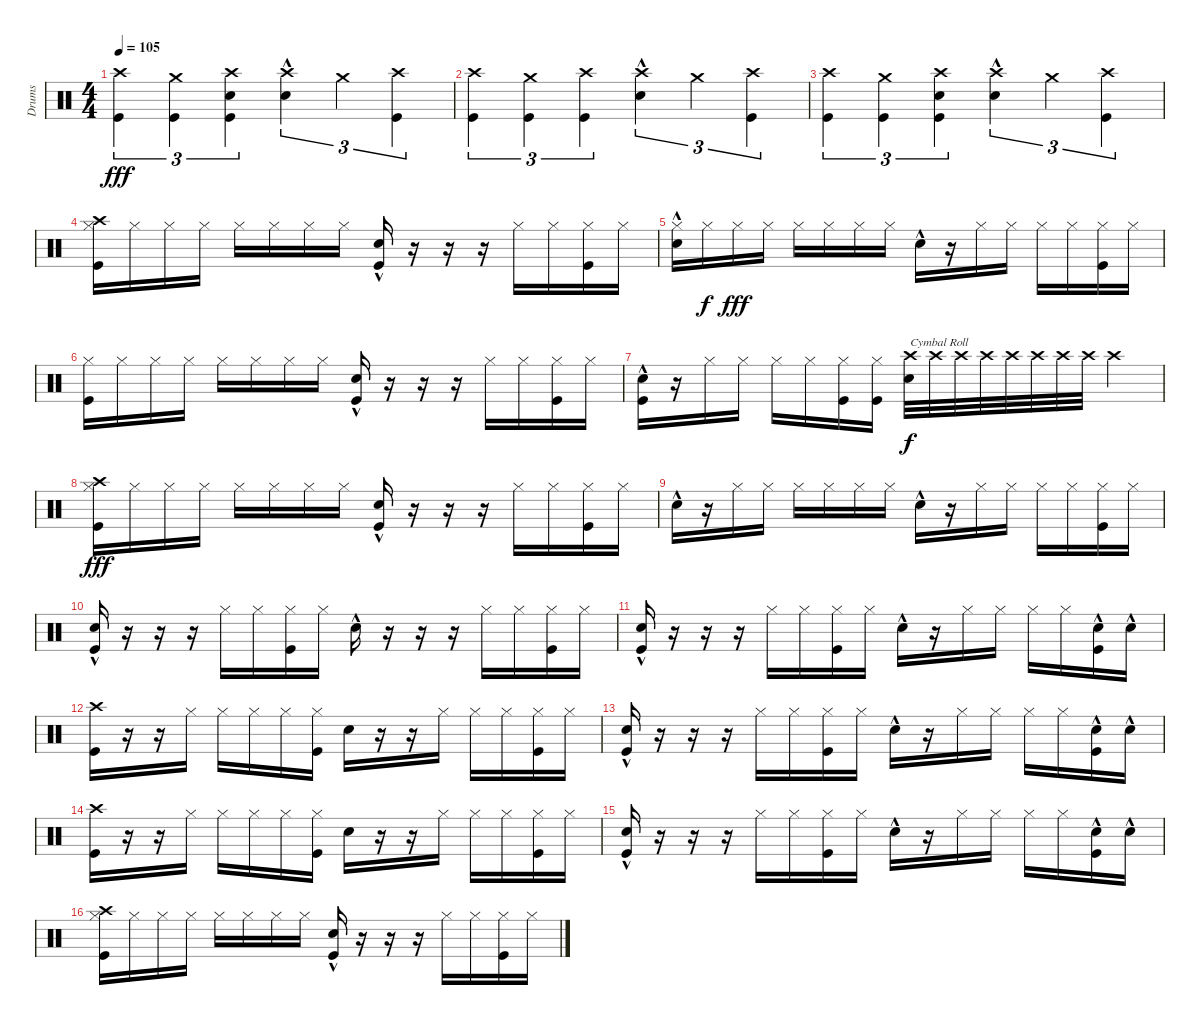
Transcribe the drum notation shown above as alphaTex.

\track ("Drums" "Drums") {instrument percussion}
\staff {score}
\articulation defaults
\ts (4 4)
\tempo 105
\clef neutral
\ks c
("Crash high (hit)" "Kick (hit)").4{tu (3 2) dy fff} ("Crash medium (hit)" "Kick (hit)").4{tu (3 2)} ("Crash high (hit)" "Snare (hit) 2" "Kick (hit)").4{tu (3 2)} ("Crash high (hit)" "Snare (hit) 2"{hac}).4{tu (3 2)} "Crash medium (hit)".4{tu (3 2)} ("Crash high (hit)" "Kick (hit)").4{tu (3 2)} |
("Crash high (hit)" "Kick (hit)").4{tu (3 2)} ("Crash medium (hit)" "Kick (hit)").4{tu (3 2)} ("Crash high (hit)" "Kick (hit)").4{tu (3 2)} ("Crash high (hit)" "Snare (hit) 2"{hac}).4{tu (3 2)} "Crash medium (hit)".4{tu (3 2)} ("Crash high (hit)" "Kick (hit)").4{tu (3 2)} |
("Crash high (hit)" "Kick (hit)").4{tu (3 2)} ("Crash medium (hit)" "Kick (hit)").4{tu (3 2)} ("Crash high (hit)" "Snare (hit) 2" "Kick (hit)").4{tu (3 2)} ("Crash high (hit)" "Snare (hit) 2"{hac}).4{tu (3 2)} "Crash medium (hit)".4{tu (3 2)} ("Crash high (hit)" "Kick (hit)").4{tu (3 2)} |
("Crash high (hit)" "Hi-Hat (closed)" "Kick (hit)").16 "Hi-Hat (closed)".16 "Hi-Hat (closed)".16 "Hi-Hat (closed)".16 "Hi-Hat (closed)".16 "Hi-Hat (closed)".16 "Hi-Hat (closed)".16 "Hi-Hat (closed)".16 ("Snare (hit) 2"{hac} "Kick (hit)").16 r.16 r.16 r.16 "Hi-Hat (closed)".16 "Hi-Hat (closed)".16 ("Hi-Hat (closed)" "Kick (hit)").16 "Hi-Hat (closed)".16 |
("Hi-Hat (closed)" "Snare (hit) 2"{hac}).16 "Hi-Hat (closed)".16{dy f} "Hi-Hat (closed)".16{dy fff} "Hi-Hat (closed)".16 "Hi-Hat (closed)".16 "Hi-Hat (closed)".16 "Hi-Hat (closed)".16 "Hi-Hat (closed)".16 "Snare (hit) 2"{hac}.16 r.16 "Hi-Hat (closed)".16 "Hi-Hat (closed)".16 "Hi-Hat (closed)".16 "Hi-Hat (closed)".16 ("Hi-Hat (closed)" "Kick (hit)").16 "Hi-Hat (closed)".16 |
("Hi-Hat (closed)" "Kick (hit)").16 "Hi-Hat (closed)".16 "Hi-Hat (closed)".16 "Hi-Hat (closed)".16 "Hi-Hat (closed)".16 "Hi-Hat (closed)".16 "Hi-Hat (closed)".16 "Hi-Hat (closed)".16 ("Snare (hit) 2"{hac} "Kick (hit)").16 r.16 r.16 r.16 "Hi-Hat (closed)".16 "Hi-Hat (closed)".16 ("Hi-Hat (closed)" "Kick (hit)").16 "Hi-Hat (closed)".16 |
("Snare (hit) 2"{hac} "Kick (hit)").16 r.16 "Hi-Hat (closed)".16 "Hi-Hat (closed)".16 "Hi-Hat (closed)".16 "Hi-Hat (closed)".16 ("Hi-Hat (closed)" "Kick (hit)").16 ("Hi-Hat (closed)" "Kick (hit)").16 ("Crash high (hit)" "Snare (hit) 2").32{txt "Cymbal Roll" dy f} "Crash high (hit)".32 "Crash high (hit)".32 "Crash high (hit)".32 "Crash high (hit)".32 "Crash high (hit)".32 "Crash high (hit)".32 "Crash high (hit)".32 "Crash high (hit)".4 |
("Crash high (hit)" "Hi-Hat (closed)" "Kick (hit)").16{dy fff} "Hi-Hat (closed)".16 "Hi-Hat (closed)".16 "Hi-Hat (closed)".16 "Hi-Hat (closed)".16 "Hi-Hat (closed)".16 "Hi-Hat (closed)".16 "Hi-Hat (closed)".16 ("Snare (hit) 2"{hac} "Kick (hit)").16 r.16 r.16 r.16 "Hi-Hat (closed)".16 "Hi-Hat (closed)".16 ("Hi-Hat (closed)" "Kick (hit)").16 "Hi-Hat (closed)".16 |
"Snare (hit) 2"{hac}.16 r.16 "Hi-Hat (closed)".16 "Hi-Hat (closed)".16 "Hi-Hat (closed)".16 "Hi-Hat (closed)".16 "Hi-Hat (closed)".16 "Hi-Hat (closed)".16 "Snare (hit) 2"{hac}.16 r.16 "Hi-Hat (closed)".16 "Hi-Hat (closed)".16 "Hi-Hat (closed)".16 "Hi-Hat (closed)".16 ("Hi-Hat (closed)" "Kick (hit)").16 "Hi-Hat (closed)".16 |
("Snare (hit) 2"{hac} "Kick (hit)").16 r.16 r.16 r.16 "Hi-Hat (closed)".16 "Hi-Hat (closed)".16 ("Hi-Hat (closed)" "Kick (hit)").16 "Hi-Hat (closed)".16 "Snare (hit) 2"{hac}.16 r.16 r.16 r.16 "Hi-Hat (closed)".16 "Hi-Hat (closed)".16 ("Hi-Hat (closed)" "Kick (hit)").16 "Hi-Hat (closed)".16 |
("Snare (hit) 2"{hac} "Kick (hit)").16 r.16 r.16 r.16 "Hi-Hat (closed)".16 "Hi-Hat (closed)".16 ("Hi-Hat (closed)" "Kick (hit)").16 "Hi-Hat (closed)".16 "Snare (hit) 2"{hac}.16 r.16 "Hi-Hat (closed)".16 "Hi-Hat (closed)".16 "Hi-Hat (closed)".16 "Hi-Hat (closed)".16 ("Snare (hit) 2"{hac} "Kick (hit)").16 "Snare (hit) 2"{hac}.16 |
("Crash high (hit)" "Kick (hit)").16 r.16 r.16 "Hi-Hat (closed)".16 "Hi-Hat (closed)".16 "Hi-Hat (closed)".16 "Hi-Hat (closed)".16 ("Hi-Hat (closed)" "Kick (hit)").16 "Snare (hit) 2".16 r.16 r.16 "Hi-Hat (closed)".16 "Hi-Hat (closed)".16 "Hi-Hat (closed)".16 ("Hi-Hat (closed)" "Kick (hit)").16 "Hi-Hat (closed)".16 |
("Snare (hit) 2"{hac} "Kick (hit)").16 r.16 r.16 r.16 "Hi-Hat (closed)".16 "Hi-Hat (closed)".16 ("Hi-Hat (closed)" "Kick (hit)").16 "Hi-Hat (closed)".16 "Snare (hit) 2"{hac}.16 r.16 "Hi-Hat (closed)".16 "Hi-Hat (closed)".16 "Hi-Hat (closed)".16 "Hi-Hat (closed)".16 ("Snare (hit) 2"{hac} "Kick (hit)").16 "Snare (hit) 2"{hac}.16 |
("Crash high (hit)" "Kick (hit)").16 r.16 r.16 "Hi-Hat (closed)".16 "Hi-Hat (closed)".16 "Hi-Hat (closed)".16 "Hi-Hat (closed)".16 ("Hi-Hat (closed)" "Kick (hit)").16 "Snare (hit) 2".16 r.16 r.16 "Hi-Hat (closed)".16 "Hi-Hat (closed)".16 "Hi-Hat (closed)".16 ("Hi-Hat (closed)" "Kick (hit)").16 "Hi-Hat (closed)".16 |
("Snare (hit) 2"{hac} "Kick (hit)").16 r.16 r.16 r.16 "Hi-Hat (closed)".16 "Hi-Hat (closed)".16 ("Hi-Hat (closed)" "Kick (hit)").16 "Hi-Hat (closed)".16 "Snare (hit) 2"{hac}.16 r.16 "Hi-Hat (closed)".16 "Hi-Hat (closed)".16 "Hi-Hat (closed)".16 "Hi-Hat (closed)".16 ("Snare (hit) 2"{hac} "Kick (hit)").16 "Snare (hit) 2"{hac}.16 |
("Crash high (hit)" "Hi-Hat (closed)" "Kick (hit)").16 "Hi-Hat (closed)".16 "Hi-Hat (closed)".16 "Hi-Hat (closed)".16 "Hi-Hat (closed)".16 "Hi-Hat (closed)".16 "Hi-Hat (closed)".16 "Hi-Hat (closed)".16 ("Snare (hit) 2"{hac} "Kick (hit)").16 r.16 r.16 r.16 "Hi-Hat (closed)".16 "Hi-Hat (closed)".16 ("Hi-Hat (closed)" "Kick (hit)").16 "Hi-Hat (closed)".16
